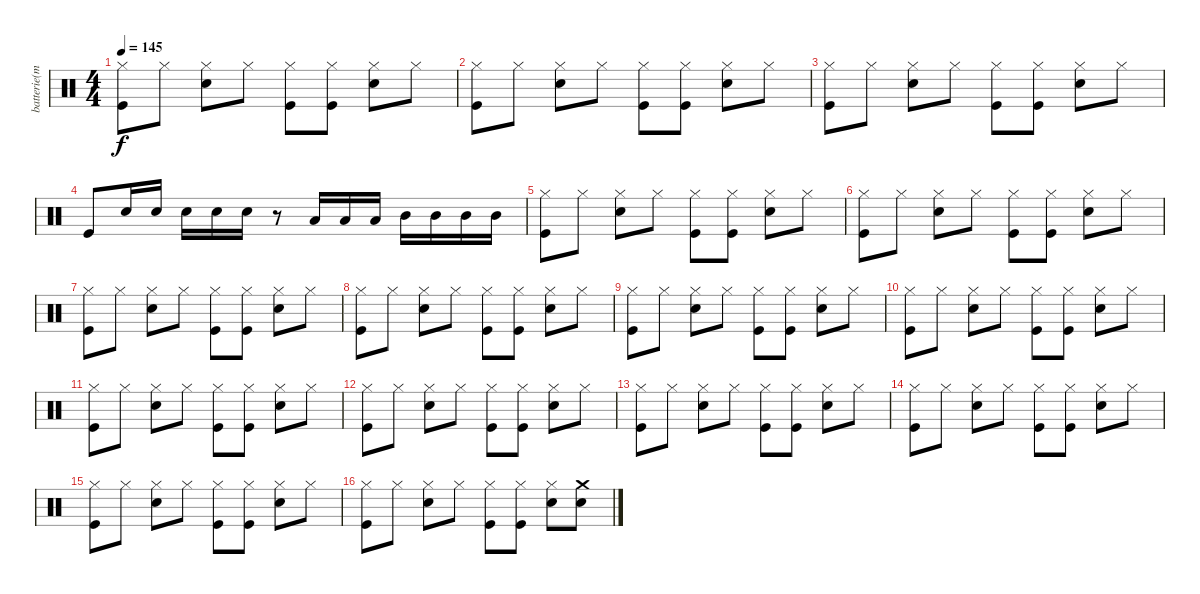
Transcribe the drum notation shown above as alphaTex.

\track ("batterie(micky)" "batterie(m") {instrument percussion}
\staff {score}
\articulation defaults
\ts (4 4)
\tempo 145
\clef neutral
\ks c
("Hi-Hat (closed)" "Kick (hit)").8{dy f} "Hi-Hat (closed)".8 ("Hi-Hat (closed)" "Snare (hit) 2").8 "Hi-Hat (closed)".8 ("Hi-Hat (closed)" "Kick (hit)").8 ("Hi-Hat (closed)" "Kick (hit)").8 ("Hi-Hat (closed)" "Snare (hit) 2").8 "Hi-Hat (closed)".8 |
("Hi-Hat (closed)" "Kick (hit)").8 "Hi-Hat (closed)".8 ("Hi-Hat (closed)" "Snare (hit) 2").8 "Hi-Hat (closed)".8 ("Hi-Hat (closed)" "Kick (hit)").8 ("Hi-Hat (closed)" "Kick (hit)").8 ("Hi-Hat (closed)" "Snare (hit) 2").8 "Hi-Hat (closed)".8 |
("Hi-Hat (closed)" "Kick (hit)").8 "Hi-Hat (closed)".8 ("Hi-Hat (closed)" "Snare (hit) 2").8 "Hi-Hat (closed)".8 ("Hi-Hat (closed)" "Kick (hit)").8 ("Hi-Hat (closed)" "Kick (hit)").8 ("Hi-Hat (closed)" "Snare (hit) 2").8 "Hi-Hat (closed)".8 |
"Kick (hit)".8 "Snare (hit) 2".16 "Snare (hit) 2".16 "Snare (hit) 2".16 "Snare (hit) 2".16 "Snare (hit) 2".16 r.8 "Low Tom (hit)".16 "Low Tom (hit)".16 "Low Tom (hit)".16 "Mid Tom (hit)".16 "Mid Tom (hit)".16 "Mid Tom (hit)".16 "Mid Tom (hit)".16 |
("Hi-Hat (closed)" "Kick (hit)").8 "Hi-Hat (closed)".8 ("Hi-Hat (closed)" "Snare (hit) 2").8 "Hi-Hat (closed)".8 ("Hi-Hat (closed)" "Kick (hit)").8 ("Hi-Hat (closed)" "Kick (hit)").8 ("Hi-Hat (closed)" "Snare (hit) 2").8 "Hi-Hat (closed)".8 |
("Hi-Hat (closed)" "Kick (hit)").8 "Hi-Hat (closed)".8 ("Hi-Hat (closed)" "Snare (hit) 2").8 "Hi-Hat (closed)".8 ("Hi-Hat (closed)" "Kick (hit)").8 ("Hi-Hat (closed)" "Kick (hit)").8 ("Hi-Hat (closed)" "Snare (hit) 2").8 "Hi-Hat (closed)".8 |
("Hi-Hat (closed)" "Kick (hit)").8 "Hi-Hat (closed)".8 ("Hi-Hat (closed)" "Snare (hit) 2").8 "Hi-Hat (closed)".8 ("Hi-Hat (closed)" "Kick (hit)").8 ("Hi-Hat (closed)" "Kick (hit)").8 ("Hi-Hat (closed)" "Snare (hit) 2").8 "Hi-Hat (closed)".8 |
("Hi-Hat (closed)" "Kick (hit)").8 "Hi-Hat (closed)".8 ("Hi-Hat (closed)" "Snare (hit) 2").8 "Hi-Hat (closed)".8 ("Hi-Hat (closed)" "Kick (hit)").8 ("Hi-Hat (closed)" "Kick (hit)").8 ("Hi-Hat (closed)" "Snare (hit) 2").8 "Hi-Hat (closed)".8 |
("Hi-Hat (closed)" "Kick (hit)").8 "Hi-Hat (closed)".8 ("Hi-Hat (closed)" "Snare (hit) 2").8 "Hi-Hat (closed)".8 ("Hi-Hat (closed)" "Kick (hit)").8 ("Hi-Hat (closed)" "Kick (hit)").8 ("Hi-Hat (closed)" "Snare (hit) 2").8 "Hi-Hat (closed)".8 |
("Hi-Hat (closed)" "Kick (hit)").8 "Hi-Hat (closed)".8 ("Hi-Hat (closed)" "Snare (hit) 2").8 "Hi-Hat (closed)".8 ("Hi-Hat (closed)" "Kick (hit)").8 ("Hi-Hat (closed)" "Kick (hit)").8 ("Hi-Hat (closed)" "Snare (hit) 2").8 "Hi-Hat (closed)".8 |
("Hi-Hat (closed)" "Kick (hit)").8 "Hi-Hat (closed)".8 ("Hi-Hat (closed)" "Snare (hit) 2").8 "Hi-Hat (closed)".8 ("Hi-Hat (closed)" "Kick (hit)").8 ("Hi-Hat (closed)" "Kick (hit)").8 ("Hi-Hat (closed)" "Snare (hit) 2").8 "Hi-Hat (closed)".8 |
("Hi-Hat (closed)" "Kick (hit)").8 "Hi-Hat (closed)".8 ("Hi-Hat (closed)" "Snare (hit) 2").8 "Hi-Hat (closed)".8 ("Hi-Hat (closed)" "Kick (hit)").8 ("Hi-Hat (closed)" "Kick (hit)").8 ("Hi-Hat (closed)" "Snare (hit) 2").8 "Hi-Hat (closed)".8 |
("Hi-Hat (closed)" "Kick (hit)").8 "Hi-Hat (closed)".8 ("Hi-Hat (closed)" "Snare (hit) 2").8 "Hi-Hat (closed)".8 ("Hi-Hat (closed)" "Kick (hit)").8 ("Hi-Hat (closed)" "Kick (hit)").8 ("Hi-Hat (closed)" "Snare (hit) 2").8 "Hi-Hat (closed)".8 |
("Hi-Hat (closed)" "Kick (hit)").8 "Hi-Hat (closed)".8 ("Hi-Hat (closed)" "Snare (hit) 2").8 "Hi-Hat (closed)".8 ("Hi-Hat (closed)" "Kick (hit)").8 ("Hi-Hat (closed)" "Kick (hit)").8 ("Hi-Hat (closed)" "Snare (hit) 2").8 "Hi-Hat (closed)".8 |
("Hi-Hat (closed)" "Kick (hit)").8 "Hi-Hat (closed)".8 ("Hi-Hat (closed)" "Snare (hit) 2").8 "Hi-Hat (closed)".8 ("Hi-Hat (closed)" "Kick (hit)").8 ("Hi-Hat (closed)" "Kick (hit)").8 ("Hi-Hat (closed)" "Snare (hit) 2").8 "Hi-Hat (closed)".8 |
("Hi-Hat (closed)" "Kick (hit)").8 "Hi-Hat (closed)".8 ("Hi-Hat (closed)" "Snare (hit) 2").8 "Hi-Hat (closed)".8 ("Hi-Hat (closed)" "Kick (hit)").8 ("Hi-Hat (closed)" "Kick (hit)").8 ("Hi-Hat (closed)" "Snare (hit) 2").8 ("Crash medium (hit)" "Snare (hit) 2").8
